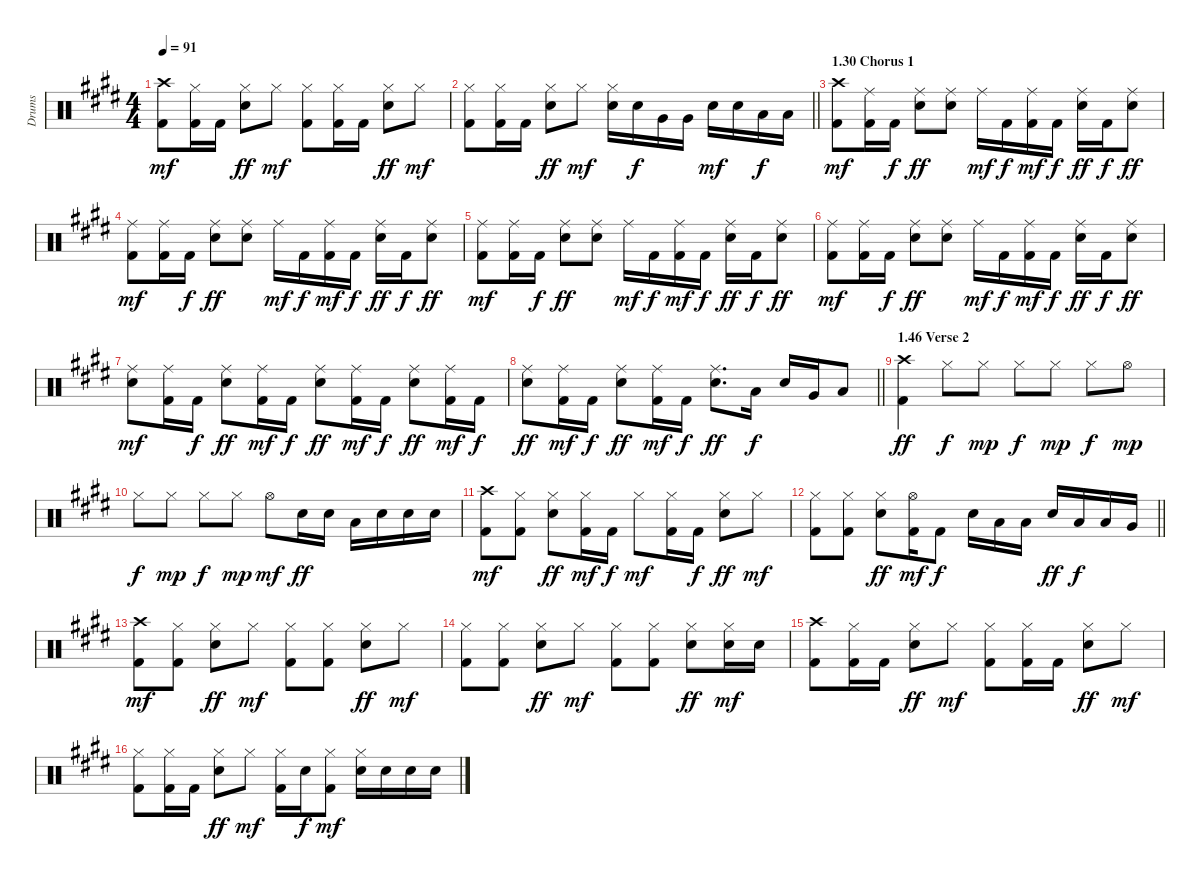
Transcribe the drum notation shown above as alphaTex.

\track ("Drums" "Drums") {instrument percussion}
\staff {score}
\articulation defaults
\ts (4 4)
\tempo 91
\clef neutral
\ks e
("Crash high (hit)" "Kick (hit) 2").8{dy mf} ("Hi-Hat (closed)" "Kick (hit) 2").16 "Kick (hit) 2".16 ("Hi-Hat (closed)" "Snare (hit) 2").8{dy ff} "Hi-Hat (closed)".8{dy mf} ("Hi-Hat (closed)" "Kick (hit) 2").8 ("Hi-Hat (closed)" "Kick (hit) 2").16 "Kick (hit) 2".16 ("Hi-Hat (closed)" "Snare (hit) 2").8{dy ff} "Hi-Hat (closed)".8{dy mf} |
\barLineRight lightlight
("Hi-Hat (closed)" "Kick (hit) 2").8 ("Hi-Hat (closed)" "Kick (hit) 2").16 "Kick (hit) 2".16 ("Hi-Hat (closed)" "Snare (hit) 2").8{dy ff} "Hi-Hat (closed)".8{dy mf} ("Hi-Hat (closed)" "Snare (hit) 2").16 "Snare (hit) 2".16{dy f} "Very Low Tom (hit)".16 "Very Low Tom (hit)".16 "Snare (hit) 2".16{dy mf} "Snare (hit) 2".16 "Low Tom (hit)".16{dy f} "Low Tom (hit)".16 |
\section ("" "1.30 Chorus 1")
("Crash high (hit)" "Kick (hit) 2").8{dy mf} ("Ride (middle)" "Kick (hit) 2").16 "Kick (hit) 2".16{dy f} ("Ride (middle)" "Snare (hit) 2").8{dy ff} ("Ride (middle)" "Snare (hit) 2").8 "Ride (middle)".16{dy mf} "Kick (hit) 2".16{dy f} ("Ride (middle)" "Kick (hit) 2").16{dy mf} "Kick (hit) 2".16{dy f} ("Ride (middle)" "Snare (hit) 2").16{dy ff} "Kick (hit) 2".16{dy f} ("Ride (middle)" "Snare (hit) 2").8{dy ff} |
("Ride (middle)" "Kick (hit) 2").8{dy mf} ("Ride (middle)" "Kick (hit) 2").16 "Kick (hit) 2".16{dy f} ("Ride (middle)" "Snare (hit) 2").8{dy ff} ("Ride (middle)" "Snare (hit) 2").8 "Ride (middle)".16{dy mf} "Kick (hit) 2".16{dy f} ("Ride (middle)" "Kick (hit) 2").16{dy mf} "Kick (hit) 2".16{dy f} ("Ride (middle)" "Snare (hit) 2").16{dy ff} "Kick (hit) 2".16{dy f} ("Ride (middle)" "Snare (hit) 2").8{dy ff} |
("Ride (middle)" "Kick (hit) 2").8{dy mf} ("Ride (middle)" "Kick (hit) 2").16 "Kick (hit) 2".16{dy f} ("Ride (middle)" "Snare (hit) 2").8{dy ff} ("Ride (middle)" "Snare (hit) 2").8 "Ride (middle)".16{dy mf} "Kick (hit) 2".16{dy f} ("Ride (middle)" "Kick (hit) 2").16{dy mf} "Kick (hit) 2".16{dy f} ("Ride (middle)" "Snare (hit) 2").16{dy ff} "Kick (hit) 2".16{dy f} ("Ride (middle)" "Snare (hit) 2").8{dy ff} |
("Ride (middle)" "Kick (hit) 2").8{dy mf} ("Ride (middle)" "Kick (hit) 2").16 "Kick (hit) 2".16{dy f} ("Ride (middle)" "Snare (hit) 2").8{dy ff} ("Ride (middle)" "Snare (hit) 2").8 "Ride (middle)".16{dy mf} "Kick (hit) 2".16{dy f} ("Ride (middle)" "Kick (hit) 2").16{dy mf} "Kick (hit) 2".16{dy f} ("Ride (middle)" "Snare (hit) 2").16{dy ff} "Kick (hit) 2".16{dy f} ("Ride (middle)" "Snare (hit) 2").8{dy ff} |
("Ride (middle)" "Snare (hit) 2").8{dy mf} ("Ride (middle)" "Kick (hit) 2").16 "Kick (hit) 2".16{dy f} ("Ride (middle)" "Snare (hit) 2").8{dy ff} ("Ride (middle)" "Kick (hit) 2").16{dy mf} "Kick (hit) 2".16{dy f} ("Ride (middle)" "Snare (hit) 2").8{dy ff} ("Ride (middle)" "Kick (hit) 2").16{dy mf} "Kick (hit) 2".16{dy f} ("Ride (middle)" "Snare (hit) 2").8{dy ff} ("Ride (middle)" "Kick (hit) 2").16{dy mf} "Kick (hit) 2".16{dy f} |
\barLineRight lightlight
("Ride (middle)" "Snare (hit) 2").8{dy ff} ("Ride (middle)" "Kick (hit) 2").16{dy mf} "Kick (hit) 2".16{dy f} ("Ride (middle)" "Snare (hit) 2").8{dy ff} ("Ride (middle)" "Kick (hit) 2").16{dy mf} "Kick (hit) 2".16{dy f} ("Ride (middle)" "Snare (hit) 2").8{d dy ff} "Low Tom (hit)".16{dy f} "Snare (hit) 2".16 "Very Low Tom (hit)".16 "Low Floor Tom (hit)".8 |
\section ("" "1.46 Verse 2")
("Crash high (hit)" "Kick (hit) 2").4{dy ff} "Hi-Hat (closed)".8{dy f} "Hi-Hat (closed)".8{dy mp} "Hi-Hat (closed)".8{dy f} "Hi-Hat (closed)".8{dy mp} "Hi-Hat (closed)".8{dy f} "Hi-Hat (open)".8{dy mp} |
"Hi-Hat (closed)".8{dy f} "Hi-Hat (closed)".8{dy mp} "Hi-Hat (closed)".8{dy f} "Hi-Hat (closed)".8{dy mp} "Hi-Hat (open)".8{dy mf} "Snare (hit) 2".16{dy ff} "Snare (hit) 2".16 "Low Tom (hit)".16 "Snare (hit) 2".16 "Snare (hit) 2".16 "Snare (hit) 2".16 |
("Crash high (hit)" "Kick (hit) 2").8{dy mf} ("Hi-Hat (closed)" "Kick (hit) 2").8 ("Hi-Hat (closed)" "Snare (hit) 2").8{dy ff} ("Hi-Hat (closed)" "Kick (hit) 2").16{dy mf} "Kick (hit) 2".16{dy f} "Hi-Hat (closed)".8{dy mf} ("Hi-Hat (closed)" "Kick (hit) 2").16 "Kick (hit) 2".16{dy f} ("Hi-Hat (closed)" "Snare (hit) 2").8{dy ff} "Hi-Hat (closed)".8{dy mf} |
\barLineRight lightlight
("Hi-Hat (closed)" "Kick (hit) 2").8 ("Hi-Hat (closed)" "Kick (hit) 2").8 ("Hi-Hat (closed)" "Snare (hit) 2").8{dy ff} ("Hi-Hat (open)" "Kick (hit) 2").16{dy mf} "Kick (hit) 2".8{dy f} "Snare (hit) 2".16 "Low Tom (hit)".16 "Low Tom (hit)".16 "Snare (hit) 2".16{dy ff} "Low Tom (hit)".16{dy f} "Low Tom (hit)".16 "Very Low Tom (hit)".16 |
("Crash high (hit)" "Kick (hit) 2").8{dy mf} ("Hi-Hat (closed)" "Kick (hit) 2").8 ("Hi-Hat (closed)" "Snare (hit) 2").8{dy ff} "Hi-Hat (closed)".8{dy mf} ("Hi-Hat (closed)" "Kick (hit) 2").8 ("Hi-Hat (closed)" "Kick (hit) 2").8 ("Hi-Hat (closed)" "Snare (hit) 2").8{dy ff} "Hi-Hat (closed)".8{dy mf} |
("Hi-Hat (closed)" "Kick (hit) 2").8 ("Hi-Hat (closed)" "Kick (hit) 2").8 ("Hi-Hat (closed)" "Snare (hit) 2").8{dy ff} "Hi-Hat (closed)".8{dy mf} ("Hi-Hat (closed)" "Kick (hit) 2").8 ("Hi-Hat (closed)" "Kick (hit) 2").8 ("Hi-Hat (closed)" "Snare (hit) 2").8{dy ff} ("Hi-Hat (closed)" "Snare (hit) 2").16{dy mf} "Snare (hit) 2".16 |
("Crash high (hit)" "Kick (hit) 2").8 ("Hi-Hat (closed)" "Kick (hit) 2").16 "Kick (hit) 2".16 ("Hi-Hat (closed)" "Snare (hit) 2").8{dy ff} "Hi-Hat (closed)".8{dy mf} ("Hi-Hat (closed)" "Kick (hit) 2").8 ("Hi-Hat (closed)" "Kick (hit) 2").16 "Kick (hit) 2".16 ("Hi-Hat (closed)" "Snare (hit) 2").8{dy ff} "Hi-Hat (closed)".8{dy mf} |
("Hi-Hat (closed)" "Kick (hit) 2").8 ("Hi-Hat (closed)" "Kick (hit) 2").16 "Kick (hit) 2".16 ("Hi-Hat (closed)" "Snare (hit) 2").8{dy ff} "Hi-Hat (closed)".8{dy mf} ("Hi-Hat (closed)" "Kick (hit) 2").16 "Snare (hit) 2".16{dy f} ("Hi-Hat (closed)" "Kick (hit) 2").8{dy mf} ("Hi-Hat (closed)" "Snare (hit) 2").16 "Snare (hit) 2".16 "Snare (hit) 2".16 "Snare (hit) 2".16
